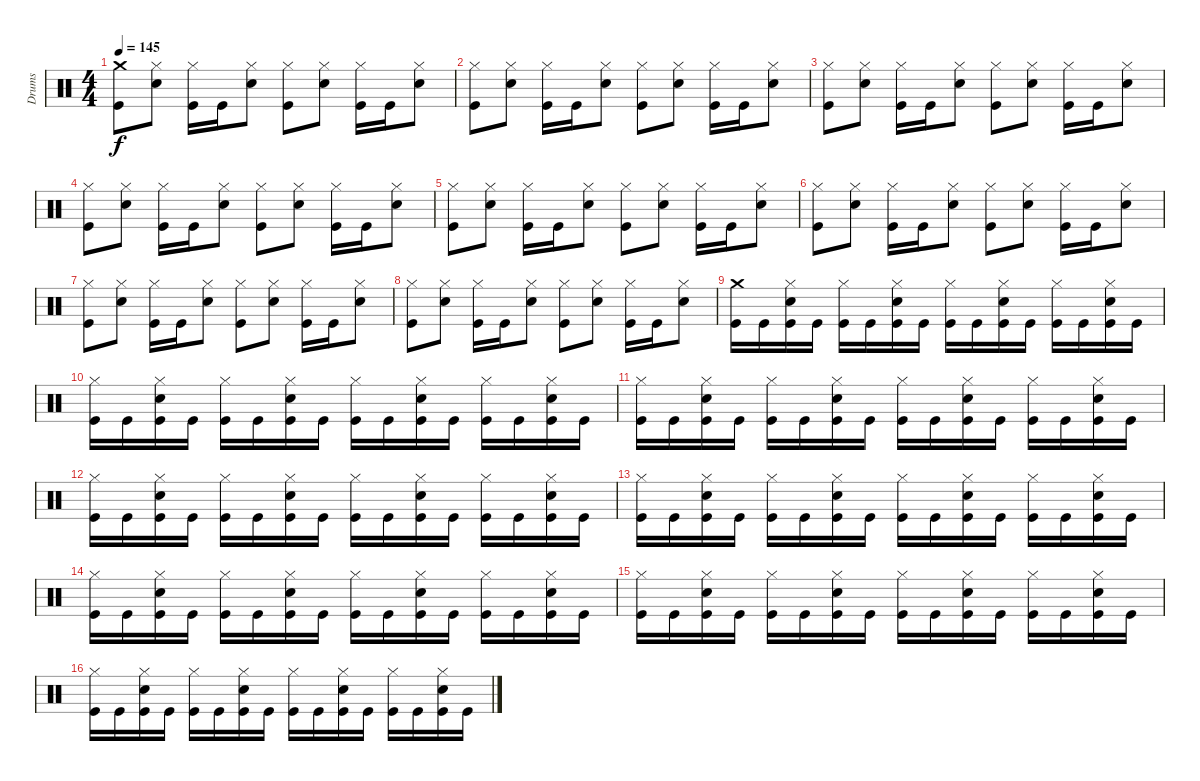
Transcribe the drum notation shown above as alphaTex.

\track ("Drums" "Drums") {instrument percussion}
\staff {score}
\articulation defaults
\ts (4 4)
\tempo 145
\clef neutral
\ks c
("Crash medium (hit)" "Kick (hit)").8{dy f} ("Hi-Hat (closed)" "Snare (hit) 2").8 ("Hi-Hat (closed)" "Kick (hit)").16 "Kick (hit)".16 ("Hi-Hat (closed)" "Snare (hit) 2").8 ("Hi-Hat (closed)" "Kick (hit)").8 ("Hi-Hat (closed)" "Snare (hit) 2").8 ("Hi-Hat (closed)" "Kick (hit)").16 "Kick (hit)".16 ("Hi-Hat (closed)" "Snare (hit) 2").8 |
("Hi-Hat (closed)" "Kick (hit)").8 ("Hi-Hat (closed)" "Snare (hit) 2").8 ("Hi-Hat (closed)" "Kick (hit)").16 "Kick (hit)".16 ("Hi-Hat (closed)" "Snare (hit) 2").8 ("Hi-Hat (closed)" "Kick (hit)").8 ("Hi-Hat (closed)" "Snare (hit) 2").8 ("Hi-Hat (closed)" "Kick (hit)").16 "Kick (hit)".16 ("Hi-Hat (closed)" "Snare (hit) 2").8 |
("Hi-Hat (closed)" "Kick (hit)").8 ("Hi-Hat (closed)" "Snare (hit) 2").8 ("Hi-Hat (closed)" "Kick (hit)").16 "Kick (hit)".16 ("Hi-Hat (closed)" "Snare (hit) 2").8 ("Hi-Hat (closed)" "Kick (hit)").8 ("Hi-Hat (closed)" "Snare (hit) 2").8 ("Hi-Hat (closed)" "Kick (hit)").16 "Kick (hit)".16 ("Hi-Hat (closed)" "Snare (hit) 2").8 |
("Hi-Hat (closed)" "Kick (hit)").8 ("Hi-Hat (closed)" "Snare (hit) 2").8 ("Hi-Hat (closed)" "Kick (hit)").16 "Kick (hit)".16 ("Hi-Hat (closed)" "Snare (hit) 2").8 ("Hi-Hat (closed)" "Kick (hit)").8 ("Hi-Hat (closed)" "Snare (hit) 2").8 ("Hi-Hat (closed)" "Kick (hit)").16 "Kick (hit)".16 ("Hi-Hat (closed)" "Snare (hit) 2").8 |
("Hi-Hat (closed)" "Kick (hit)").8 ("Hi-Hat (closed)" "Snare (hit) 2").8 ("Hi-Hat (closed)" "Kick (hit)").16 "Kick (hit)".16 ("Hi-Hat (closed)" "Snare (hit) 2").8 ("Hi-Hat (closed)" "Kick (hit)").8 ("Hi-Hat (closed)" "Snare (hit) 2").8 ("Hi-Hat (closed)" "Kick (hit)").16 "Kick (hit)".16 ("Hi-Hat (closed)" "Snare (hit) 2").8 |
("Hi-Hat (closed)" "Kick (hit)").8 ("Hi-Hat (closed)" "Snare (hit) 2").8 ("Hi-Hat (closed)" "Kick (hit)").16 "Kick (hit)".16 ("Hi-Hat (closed)" "Snare (hit) 2").8 ("Hi-Hat (closed)" "Kick (hit)").8 ("Hi-Hat (closed)" "Snare (hit) 2").8 ("Hi-Hat (closed)" "Kick (hit)").16 "Kick (hit)".16 ("Hi-Hat (closed)" "Snare (hit) 2").8 |
("Hi-Hat (closed)" "Kick (hit)").8 ("Hi-Hat (closed)" "Snare (hit) 2").8 ("Hi-Hat (closed)" "Kick (hit)").16 "Kick (hit)".16 ("Hi-Hat (closed)" "Snare (hit) 2").8 ("Hi-Hat (closed)" "Kick (hit)").8 ("Hi-Hat (closed)" "Snare (hit) 2").8 ("Hi-Hat (closed)" "Kick (hit)").16 "Kick (hit)".16 ("Hi-Hat (closed)" "Snare (hit) 2").8 |
("Hi-Hat (closed)" "Kick (hit)").8 ("Hi-Hat (closed)" "Snare (hit) 2").8 ("Hi-Hat (closed)" "Kick (hit)").16 "Kick (hit)".16 ("Hi-Hat (closed)" "Snare (hit) 2").8 ("Hi-Hat (closed)" "Kick (hit)").8 ("Hi-Hat (closed)" "Snare (hit) 2").8 ("Hi-Hat (closed)" "Kick (hit)").16 "Kick (hit)".16 ("Hi-Hat (closed)" "Snare (hit) 2").8 |
("Crash medium (hit)" "Kick (hit)").16 "Kick (hit)".16 ("Hi-Hat (closed)" "Snare (hit) 2" "Kick (hit)").16 "Kick (hit)".16 ("Hi-Hat (closed)" "Kick (hit)").16 "Kick (hit)".16 ("Hi-Hat (closed)" "Snare (hit) 2" "Kick (hit)").16 "Kick (hit)".16 ("Hi-Hat (closed)" "Kick (hit)").16 "Kick (hit)".16 ("Hi-Hat (closed)" "Snare (hit) 2" "Kick (hit)").16 "Kick (hit)".16 ("Hi-Hat (closed)" "Kick (hit)").16 "Kick (hit)".16 ("Hi-Hat (closed)" "Snare (hit) 2" "Kick (hit)").16 "Kick (hit)".16 |
("Hi-Hat (closed)" "Kick (hit)").16 "Kick (hit)".16 ("Hi-Hat (closed)" "Snare (hit) 2" "Kick (hit)").16 "Kick (hit)".16 ("Hi-Hat (closed)" "Kick (hit)").16 "Kick (hit)".16 ("Hi-Hat (closed)" "Snare (hit) 2" "Kick (hit)").16 "Kick (hit)".16 ("Hi-Hat (closed)" "Kick (hit)").16 "Kick (hit)".16 ("Hi-Hat (closed)" "Snare (hit) 2" "Kick (hit)").16 "Kick (hit)".16 ("Hi-Hat (closed)" "Kick (hit)").16 "Kick (hit)".16 ("Hi-Hat (closed)" "Snare (hit) 2" "Kick (hit)").16 "Kick (hit)".16 |
("Hi-Hat (closed)" "Kick (hit)").16 "Kick (hit)".16 ("Hi-Hat (closed)" "Snare (hit) 2" "Kick (hit)").16 "Kick (hit)".16 ("Hi-Hat (closed)" "Kick (hit)").16 "Kick (hit)".16 ("Hi-Hat (closed)" "Snare (hit) 2" "Kick (hit)").16 "Kick (hit)".16 ("Hi-Hat (closed)" "Kick (hit)").16 "Kick (hit)".16 ("Hi-Hat (closed)" "Snare (hit) 2" "Kick (hit)").16 "Kick (hit)".16 ("Hi-Hat (closed)" "Kick (hit)").16 "Kick (hit)".16 ("Hi-Hat (closed)" "Snare (hit) 2" "Kick (hit)").16 "Kick (hit)".16 |
("Hi-Hat (closed)" "Kick (hit)").16 "Kick (hit)".16 ("Hi-Hat (closed)" "Snare (hit) 2" "Kick (hit)").16 "Kick (hit)".16 ("Hi-Hat (closed)" "Kick (hit)").16 "Kick (hit)".16 ("Hi-Hat (closed)" "Snare (hit) 2" "Kick (hit)").16 "Kick (hit)".16 ("Hi-Hat (closed)" "Kick (hit)").16 "Kick (hit)".16 ("Hi-Hat (closed)" "Snare (hit) 2" "Kick (hit)").16 "Kick (hit)".16 ("Hi-Hat (closed)" "Kick (hit)").16 "Kick (hit)".16 ("Hi-Hat (closed)" "Snare (hit) 2" "Kick (hit)").16 "Kick (hit)".16 |
("Hi-Hat (closed)" "Kick (hit)").16 "Kick (hit)".16 ("Hi-Hat (closed)" "Snare (hit) 2" "Kick (hit)").16 "Kick (hit)".16 ("Hi-Hat (closed)" "Kick (hit)").16 "Kick (hit)".16 ("Hi-Hat (closed)" "Snare (hit) 2" "Kick (hit)").16 "Kick (hit)".16 ("Hi-Hat (closed)" "Kick (hit)").16 "Kick (hit)".16 ("Hi-Hat (closed)" "Snare (hit) 2" "Kick (hit)").16 "Kick (hit)".16 ("Hi-Hat (closed)" "Kick (hit)").16 "Kick (hit)".16 ("Hi-Hat (closed)" "Snare (hit) 2" "Kick (hit)").16 "Kick (hit)".16 |
("Hi-Hat (closed)" "Kick (hit)").16 "Kick (hit)".16 ("Hi-Hat (closed)" "Snare (hit) 2" "Kick (hit)").16 "Kick (hit)".16 ("Hi-Hat (closed)" "Kick (hit)").16 "Kick (hit)".16 ("Hi-Hat (closed)" "Snare (hit) 2" "Kick (hit)").16 "Kick (hit)".16 ("Hi-Hat (closed)" "Kick (hit)").16 "Kick (hit)".16 ("Hi-Hat (closed)" "Snare (hit) 2" "Kick (hit)").16 "Kick (hit)".16 ("Hi-Hat (closed)" "Kick (hit)").16 "Kick (hit)".16 ("Hi-Hat (closed)" "Snare (hit) 2" "Kick (hit)").16 "Kick (hit)".16 |
("Hi-Hat (closed)" "Kick (hit)").16 "Kick (hit)".16 ("Hi-Hat (closed)" "Snare (hit) 2" "Kick (hit)").16 "Kick (hit)".16 ("Hi-Hat (closed)" "Kick (hit)").16 "Kick (hit)".16 ("Hi-Hat (closed)" "Snare (hit) 2" "Kick (hit)").16 "Kick (hit)".16 ("Hi-Hat (closed)" "Kick (hit)").16 "Kick (hit)".16 ("Hi-Hat (closed)" "Snare (hit) 2" "Kick (hit)").16 "Kick (hit)".16 ("Hi-Hat (closed)" "Kick (hit)").16 "Kick (hit)".16 ("Hi-Hat (closed)" "Snare (hit) 2" "Kick (hit)").16 "Kick (hit)".16 |
("Hi-Hat (closed)" "Kick (hit)").16 "Kick (hit)".16 ("Hi-Hat (closed)" "Snare (hit) 2" "Kick (hit)").16 "Kick (hit)".16 ("Hi-Hat (closed)" "Kick (hit)").16 "Kick (hit)".16 ("Hi-Hat (closed)" "Snare (hit) 2" "Kick (hit)").16 "Kick (hit)".16 ("Hi-Hat (closed)" "Kick (hit)").16 "Kick (hit)".16 ("Hi-Hat (closed)" "Snare (hit) 2" "Kick (hit)").16 "Kick (hit)".16 ("Hi-Hat (closed)" "Kick (hit)").16 "Kick (hit)".16 ("Hi-Hat (closed)" "Snare (hit) 2" "Kick (hit)").16 "Kick (hit)".16
